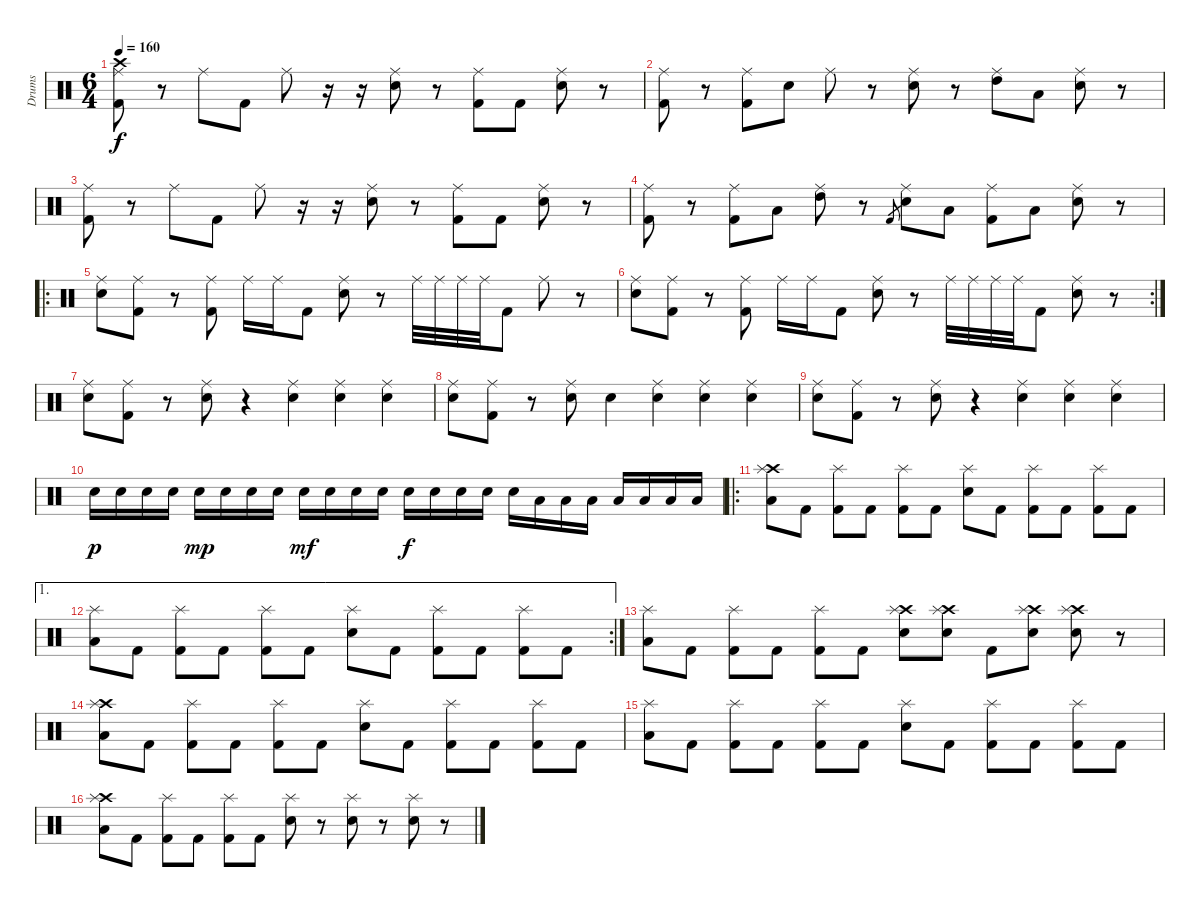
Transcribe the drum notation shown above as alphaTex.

\track ("Drums" "Drums") {instrument percussion}
\staff {score}
\articulation defaults
\ts (6 4)
\tempo 160
\clef neutral
\ks c
("Crash high (hit)" "Ride (middle)" "Kick (hit) 2").8{dy f} r.8 "Ride (middle)".8 "Kick (hit) 2".8 "Ride (middle)".8 r.16 r.16 ("Ride (middle)" "Electric Snare (hit)").8 r.8 ("Ride (middle)" "Kick (hit) 2").8 "Kick (hit) 2".8 ("Ride (middle)" "Electric Snare (hit)").8 r.8 |
("Ride (middle)" "Kick (hit) 2").8 r.8 ("Ride (middle)" "Kick (hit) 2").8 "Electric Snare (hit)".8 "Ride (middle)".8 r.8 ("Ride (middle)" "Electric Snare (hit)").8 r.8 ("Ride (middle)" "High Tom (hit)").8 "Low Tom (hit)".8 ("Ride (middle)" "Electric Snare (hit)").8 r.8 |
("Ride (middle)" "Kick (hit) 2").8 r.8 "Ride (middle)".8 "Kick (hit) 2".8 "Ride (middle)".8 r.16 r.16 ("Ride (middle)" "Electric Snare (hit)").8 r.8 ("Ride (middle)" "Kick (hit) 2").8 "Kick (hit) 2".8 ("Ride (middle)" "Electric Snare (hit)").8 r.8 |
("Ride (middle)" "Kick (hit) 2").8 r.8 ("Ride (middle)" "Kick (hit) 2").8 "Low Tom (hit)".8 ("Ride (middle)" "High Tom (hit)").8 r.8 "Kick (hit) 2".8{gr} ("Ride (middle)" "Snare (hit) 2").8 "Low Tom (hit)".8 ("Ride (middle)" "Kick (hit) 2").8 "Low Tom (hit)".8 ("Ride (middle)" "Snare (hit) 2").8 r.8 |
\ro
("Ride (middle)" "Electric Snare (hit)").8 ("Ride (middle)" "Kick (hit) 2").8 r.8 ("Ride (middle)" "Kick (hit) 2").8 "Ride (middle)".16 "Ride (middle)".16 "Kick (hit) 2".8 ("Ride (middle)" "Electric Snare (hit)").8 r.8 "Ride (middle)".32 "Ride (middle)".32 "Ride (middle)".32 "Ride (middle)".32 "Kick (hit) 2".8 "Ride (middle)".8 r.8 |
\rc 2
("Ride (middle)" "Electric Snare (hit)").8 ("Ride (middle)" "Kick (hit) 2").8 r.8 ("Ride (middle)" "Kick (hit) 2").8 "Ride (middle)".16 "Ride (middle)".16 "Kick (hit) 2".8 ("Ride (middle)" "Electric Snare (hit)").8 r.8 "Ride (middle)".32 "Ride (middle)".32 "Ride (middle)".32 "Ride (middle)".32 "Kick (hit) 2".8 ("Ride (middle)" "Electric Snare (hit)").8 r.8 |
("Ride (middle)" "Electric Snare (hit)").8 ("Ride (middle)" "Kick (hit) 2").8 r.8 ("Ride (middle)" "Electric Snare (hit)").8 r.4 ("Ride (middle)" "Electric Snare (hit)").4 ("Ride (middle)" "Electric Snare (hit)").4 ("Ride (middle)" "Electric Snare (hit)").4 |
("Ride (middle)" "Electric Snare (hit)").8 ("Ride (middle)" "Kick (hit) 2").8 r.8 ("Ride (middle)" "Electric Snare (hit)").8 "Electric Snare (hit)".4 ("Ride (middle)" "Electric Snare (hit)").4 ("Ride (middle)" "Electric Snare (hit)").4 ("Ride (middle)" "Electric Snare (hit)").4 |
("Ride (middle)" "Electric Snare (hit)").8 ("Ride (middle)" "Kick (hit) 2").8 r.8 ("Ride (middle)" "Electric Snare (hit)").8 r.4 ("Ride (middle)" "Electric Snare (hit)").4 ("Ride (middle)" "Electric Snare (hit)").4 ("Ride (middle)" "Electric Snare (hit)").4 |
"Electric Snare (hit)".16{dy p} "Electric Snare (hit)".16 "Electric Snare (hit)".16 "Electric Snare (hit)".16 "Electric Snare (hit)".16{dy mp} "Electric Snare (hit)".16 "Electric Snare (hit)".16 "Electric Snare (hit)".16 "Electric Snare (hit)".16{dy mf} "Electric Snare (hit)".16 "Electric Snare (hit)".16 "Electric Snare (hit)".16 "Electric Snare (hit)".16{dy f} "Electric Snare (hit)".16 "Electric Snare (hit)".16 "Electric Snare (hit)".16 "Electric Snare (hit)".16 "Low Tom (hit)".16 "Low Tom (hit)".16 "Low Tom (hit)".16 "Low Tom (hit)".16 "Low Tom (hit)".16 "Low Tom (hit)".16 "Low Tom (hit)".16 |
\ro
("Crash high (hit)" "Splash (hit)" "Low Tom (hit)").8 "Kick (hit) 2".8 ("Splash (hit)" "Kick (hit) 2").8 "Kick (hit) 2".8 ("Splash (hit)" "Kick (hit) 2").8 "Kick (hit) 2".8 ("Splash (hit)" "Electric Snare (hit)").8 "Kick (hit) 2".8 ("Splash (hit)" "Kick (hit) 2").8 "Kick (hit) 2".8 ("Splash (hit)" "Kick (hit) 2").8 "Kick (hit) 2".8 |
\ae 1
\rc 2
("Splash (hit)" "Low Tom (hit)").8 "Kick (hit) 2".8 ("Splash (hit)" "Kick (hit) 2").8 "Kick (hit) 2".8 ("Splash (hit)" "Kick (hit) 2").8 "Kick (hit) 2".8 ("Splash (hit)" "Electric Snare (hit)").8 "Kick (hit) 2".8 ("Splash (hit)" "Kick (hit) 2").8 "Kick (hit) 2".8 ("Splash (hit)" "Kick (hit) 2").8 "Kick (hit) 2".8 |
("Splash (hit)" "Low Tom (hit)").8 "Kick (hit) 2".8 ("Splash (hit)" "Kick (hit) 2").8 "Kick (hit) 2".8 ("Splash (hit)" "Kick (hit) 2").8 "Kick (hit) 2".8 ("Crash high (hit)" "Splash (hit)" "Electric Snare (hit)").8 ("Crash high (hit)" "Splash (hit)" "Electric Snare (hit)").8 "Kick (hit) 2".8 ("Crash high (hit)" "Splash (hit)" "Electric Snare (hit)").8 ("Crash high (hit)" "Splash (hit)" "Electric Snare (hit)").8 r.8 |
("Crash high (hit)" "Splash (hit)" "Low Tom (hit)").8 "Kick (hit) 2".8 ("Splash (hit)" "Kick (hit) 2").8 "Kick (hit) 2".8 ("Splash (hit)" "Kick (hit) 2").8 "Kick (hit) 2".8 ("Splash (hit)" "Electric Snare (hit)").8 "Kick (hit) 2".8 ("Splash (hit)" "Kick (hit) 2").8 "Kick (hit) 2".8 ("Splash (hit)" "Kick (hit) 2").8 "Kick (hit) 2".8 |
("Splash (hit)" "Low Tom (hit)").8 "Kick (hit) 2".8 ("Splash (hit)" "Kick (hit) 2").8 "Kick (hit) 2".8 ("Splash (hit)" "Kick (hit) 2").8 "Kick (hit) 2".8 ("Splash (hit)" "Electric Snare (hit)").8 "Kick (hit) 2".8 ("Splash (hit)" "Kick (hit) 2").8 "Kick (hit) 2".8 ("Splash (hit)" "Kick (hit) 2").8 "Kick (hit) 2".8 |
("Crash high (hit)" "Splash (hit)" "Low Tom (hit)").8 "Kick (hit) 2".8 ("Splash (hit)" "Kick (hit) 2").8 "Kick (hit) 2".8 ("Splash (hit)" "Kick (hit) 2").8 "Kick (hit) 2".8 ("Splash (hit)" "Electric Snare (hit)").8 r.8 ("Splash (hit)" "Electric Snare (hit)").8 r.8 ("Splash (hit)" "Electric Snare (hit)").8 r.8
